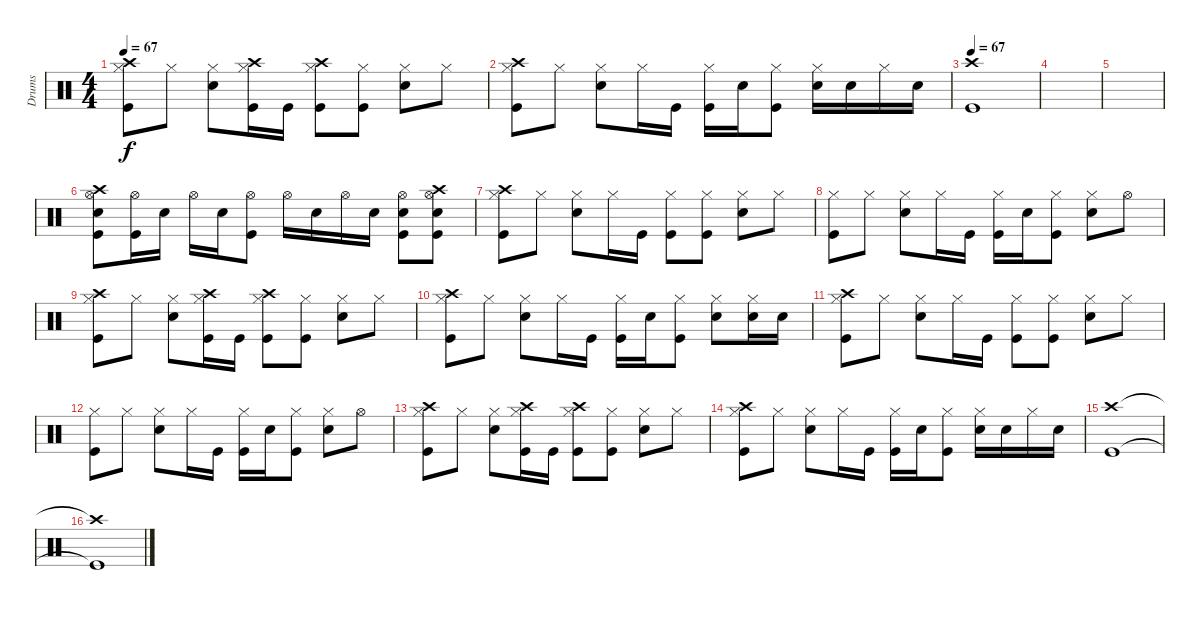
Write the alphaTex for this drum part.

\track ("Drums" "Drums") {instrument percussion}
\staff {score}
\articulation defaults
\ts (4 4)
\tempo 67
\clef neutral
\ks c
("Crash high (hit)" "Hi-Hat (closed)" "Kick (hit)").8{dy f} "Hi-Hat (closed)".8 ("Hi-Hat (closed)" "Electric Snare (hit)").8 ("Crash high (hit)" "Hi-Hat (closed)" "Kick (hit)").16 "Kick (hit)".16 ("Crash high (hit)" "Hi-Hat (closed)" "Kick (hit)").8 ("Hi-Hat (closed)" "Kick (hit)").8 ("Hi-Hat (closed)" "Electric Snare (hit)").8 "Hi-Hat (closed)".8 |
("Crash high (hit)" "Hi-Hat (closed)" "Kick (hit)").8 "Hi-Hat (closed)".8 ("Hi-Hat (closed)" "Electric Snare (hit)").8 "Hi-Hat (closed)".16 "Kick (hit)".16 ("Hi-Hat (closed)" "Kick (hit)").16 "Electric Snare (hit)".16 ("Hi-Hat (closed)" "Kick (hit)").8 ("Hi-Hat (closed)" "Electric Snare (hit)").16 "Electric Snare (hit)".16 "Hi-Hat (closed)".16 "Electric Snare (hit)".16 |
\tempo 67
("Crash high (hit)" "Kick (hit)").1 |
|
|
("Crash high (hit)" "Electric Snare (hit)" "Hi-Hat (open)" "Kick (hit)").8 ("Hi-Hat (open)" "Kick (hit)").16 "Electric Snare (hit)".16 "Hi-Hat (open)".16 "Electric Snare (hit)".16 ("Hi-Hat (open)" "Kick (hit)").8 "Hi-Hat (open)".16 "Electric Snare (hit)".16 "Hi-Hat (open)".16 "Electric Snare (hit)".16 ("Electric Snare (hit)" "Hi-Hat (open)" "Kick (hit)").8 ("Crash high (hit)" "Electric Snare (hit)" "Hi-Hat (open)" "Kick (hit)").8 |
("Crash high (hit)" "Hi-Hat (closed)" "Kick (hit)").8 "Hi-Hat (closed)".8 ("Hi-Hat (closed)" "Electric Snare (hit)").8 "Hi-Hat (closed)".16 "Kick (hit)".16 ("Hi-Hat (closed)" "Kick (hit)").8 ("Hi-Hat (closed)" "Kick (hit)").8 ("Hi-Hat (closed)" "Electric Snare (hit)").8 "Hi-Hat (closed)".8 |
("Hi-Hat (closed)" "Kick (hit)").8 "Hi-Hat (closed)".8 ("Hi-Hat (closed)" "Electric Snare (hit)").8 "Hi-Hat (closed)".16 "Kick (hit)".16 ("Hi-Hat (closed)" "Kick (hit)").16 "Electric Snare (hit)".16 ("Hi-Hat (closed)" "Kick (hit)").8 ("Hi-Hat (closed)" "Electric Snare (hit)").8 "Hi-Hat (open)".8 |
("Crash high (hit)" "Hi-Hat (closed)" "Kick (hit)").8 "Hi-Hat (closed)".8 ("Hi-Hat (closed)" "Electric Snare (hit)").8 ("Crash high (hit)" "Hi-Hat (closed)" "Kick (hit)").16 "Kick (hit)".16 ("Crash high (hit)" "Hi-Hat (closed)" "Kick (hit)").8 ("Hi-Hat (closed)" "Kick (hit)").8 ("Hi-Hat (closed)" "Electric Snare (hit)").8 "Hi-Hat (closed)".8 |
("Crash high (hit)" "Hi-Hat (closed)" "Kick (hit)").8 "Hi-Hat (closed)".8 ("Hi-Hat (closed)" "Electric Snare (hit)").8 "Hi-Hat (closed)".16 "Kick (hit)".16 ("Hi-Hat (closed)" "Kick (hit)").16 "Electric Snare (hit)".16 ("Hi-Hat (closed)" "Kick (hit)").8 ("Hi-Hat (closed)" "Electric Snare (hit)").8 ("Hi-Hat (closed)" "Electric Snare (hit)").16 "Electric Snare (hit)".16 |
("Crash high (hit)" "Hi-Hat (closed)" "Kick (hit)").8 "Hi-Hat (closed)".8 ("Hi-Hat (closed)" "Electric Snare (hit)").8 "Hi-Hat (closed)".16 "Kick (hit)".16 ("Hi-Hat (closed)" "Kick (hit)").8 ("Hi-Hat (closed)" "Kick (hit)").8 ("Hi-Hat (closed)" "Electric Snare (hit)").8 "Hi-Hat (closed)".8 |
("Hi-Hat (closed)" "Kick (hit)").8 "Hi-Hat (closed)".8 ("Hi-Hat (closed)" "Electric Snare (hit)").8 "Hi-Hat (closed)".16 "Kick (hit)".16 ("Hi-Hat (closed)" "Kick (hit)").16 "Electric Snare (hit)".16 ("Hi-Hat (closed)" "Kick (hit)").8 ("Hi-Hat (closed)" "Electric Snare (hit)").8 "Hi-Hat (open)".8 |
("Crash high (hit)" "Hi-Hat (closed)" "Kick (hit)").8 "Hi-Hat (closed)".8 ("Hi-Hat (closed)" "Electric Snare (hit)").8 ("Crash high (hit)" "Hi-Hat (closed)" "Kick (hit)").16 "Kick (hit)".16 ("Crash high (hit)" "Hi-Hat (closed)" "Kick (hit)").8 ("Hi-Hat (closed)" "Kick (hit)").8 ("Hi-Hat (closed)" "Electric Snare (hit)").8 "Hi-Hat (closed)".8 |
("Crash high (hit)" "Hi-Hat (closed)" "Kick (hit)").8 "Hi-Hat (closed)".8 ("Hi-Hat (closed)" "Electric Snare (hit)").8 "Hi-Hat (closed)".16 "Kick (hit)".16 ("Hi-Hat (closed)" "Kick (hit)").16 "Electric Snare (hit)".16 ("Hi-Hat (closed)" "Kick (hit)").8 ("Hi-Hat (closed)" "Electric Snare (hit)").16 "Electric Snare (hit)".16 "Hi-Hat (closed)".16 "Electric Snare (hit)".16 |
("Crash high (hit)" "Kick (hit)").1 |
("Crash high (hit)"{t} "Kick (hit)"{t}).1
